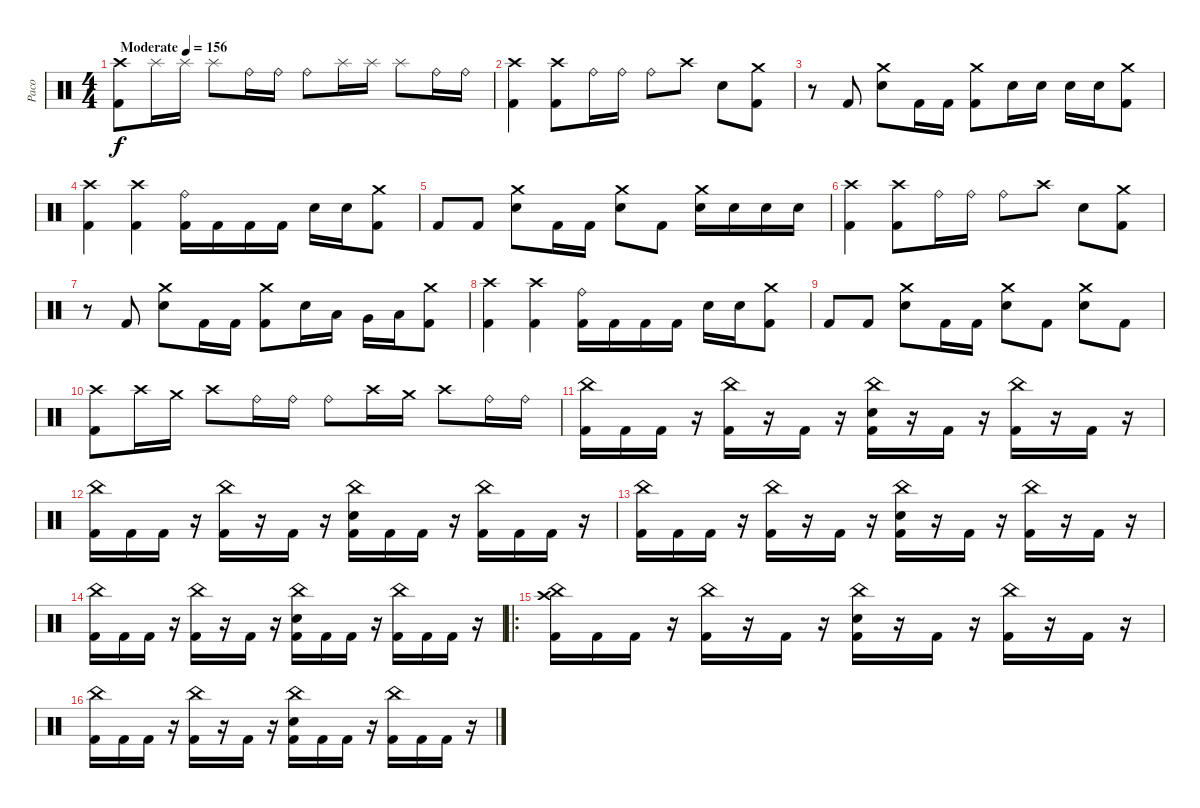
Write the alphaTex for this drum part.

\track ("Paco" "Paco") {instrument percussion}
\staff {score}
\articulation defaults
\ts (4 4)
\tempo (156 "Moderate")
\clef neutral
\ks c
("Crash high (hit)" "Kick (hit) 2").8{dy f} "Splash (hit)".16 "Splash (hit)".16 "Splash (hit)".8 "Ride (bell)".16 "Ride (bell)".16 "Ride (bell)".8 "Splash (hit)".16 "Splash (hit)".16 "Splash (hit)".8 "Ride (bell)".16 "Ride (bell)".16 |
("Crash high (hit)" "Kick (hit) 2").4 ("Crash high (hit)" "Kick (hit) 2").8 "Ride (bell)".16 "Ride (bell)".16 "Ride (bell)".8 "Crash high (hit)".8 "Electric Snare (hit)".8 ("Crash medium (hit)" "Kick (hit) 2").8 |
r.8 "Kick (hit) 2".8 ("Crash medium (hit)" "Electric Snare (hit)").8 "Kick (hit) 2".16 "Kick (hit) 2".16 ("Crash medium (hit)" "Kick (hit) 2").8 "Electric Snare (hit)".16 "Electric Snare (hit)".16 "Electric Snare (hit)".16 "Electric Snare (hit)".16 ("Crash medium (hit)" "Kick (hit) 2").8 |
("Crash high (hit)" "Kick (hit) 2").4 ("Crash high (hit)" "Kick (hit) 2").4 ("Ride (bell)" "Kick (hit) 2").16 "Kick (hit) 2".16 "Kick (hit) 2".16 "Kick (hit) 2".16 "Electric Snare (hit)".16 "Electric Snare (hit)".16 ("Crash medium (hit)" "Kick (hit) 2").8 |
"Kick (hit) 2".8 "Kick (hit) 2".8 ("Crash medium (hit)" "Electric Snare (hit)").8 "Kick (hit) 2".16 "Kick (hit) 2".16 ("Crash medium (hit)" "Electric Snare (hit)").8 "Kick (hit) 2".8 ("Crash medium (hit)" "Electric Snare (hit)").16 "Electric Snare (hit)".16 "Electric Snare (hit)".16 "Electric Snare (hit)".16 |
("Crash high (hit)" "Kick (hit) 2").4 ("Crash high (hit)" "Kick (hit) 2").8 "Ride (bell)".16 "Ride (bell)".16 "Ride (bell)".8 "Crash high (hit)".8 "Electric Snare (hit)".8 ("Crash medium (hit)" "Kick (hit) 2").8 |
r.8 "Kick (hit) 2".8 ("Crash medium (hit)" "Electric Snare (hit)").8 "Kick (hit) 2".16 "Kick (hit) 2".16 ("Crash medium (hit)" "Kick (hit) 2").8 "Electric Snare (hit)".16 "Low Tom (hit)".16 "Very Low Tom (hit)".16 "Low Floor Tom (hit)".16 ("Crash medium (hit)" "Kick (hit) 2").8 |
("Crash high (hit)" "Kick (hit) 2").4 ("Crash high (hit)" "Kick (hit) 2").4 ("Ride (bell)" "Kick (hit) 2").16 "Kick (hit) 2".16 "Kick (hit) 2".16 "Kick (hit) 2".16 "Electric Snare (hit)".16 "Electric Snare (hit)".16 ("Crash medium (hit)" "Kick (hit) 2").8 |
"Kick (hit) 2".8 "Kick (hit) 2".8 ("Crash medium (hit)" "Electric Snare (hit)").8 "Kick (hit) 2".16 "Kick (hit) 2".16 ("Crash medium (hit)" "Electric Snare (hit)").8 "Kick (hit) 2".8 ("Crash medium (hit)" "Electric Snare (hit)").8 "Kick (hit) 2".8 |
("Crash high (hit)" "Kick (hit) 2").8 "Crash high (hit)".16 "Crash medium (hit)".16 "Crash high (hit)".8 "Ride (bell)".16 "Ride (bell)".16 "Ride (bell)".8 "Crash high (hit)".16 "Crash medium (hit)".16 "Crash high (hit)".8 "Ride (bell)".16 "Ride (bell)".16 |
("China (hit)" "Kick (hit) 2").16 "Kick (hit) 2".16 "Kick (hit) 2".16 r.16 ("China (hit)" "Kick (hit) 2").16 r.16 "Kick (hit) 2".16 r.16 ("China (hit)" "Electric Snare (hit)" "Kick (hit) 2").16 r.16 "Kick (hit) 2".16 r.16 ("China (hit)" "Kick (hit) 2").16 r.16 "Kick (hit) 2".16 r.16 |
("China (hit)" "Kick (hit) 2").16 "Kick (hit) 2".16 "Kick (hit) 2".16 r.16 ("China (hit)" "Kick (hit) 2").16 r.16 "Kick (hit) 2".16 r.16 ("China (hit)" "Electric Snare (hit)" "Kick (hit) 2").16 "Kick (hit) 2".16 "Kick (hit) 2".16 r.16 ("China (hit)" "Kick (hit) 2").16 "Kick (hit) 2".16 "Kick (hit) 2".16 r.16 |
("China (hit)" "Kick (hit) 2").16 "Kick (hit) 2".16 "Kick (hit) 2".16 r.16 ("China (hit)" "Kick (hit) 2").16 r.16 "Kick (hit) 2".16 r.16 ("China (hit)" "Electric Snare (hit)" "Kick (hit) 2").16 r.16 "Kick (hit) 2".16 r.16 ("China (hit)" "Kick (hit) 2").16 r.16 "Kick (hit) 2".16 r.16 |
("China (hit)" "Kick (hit) 2").16 "Kick (hit) 2".16 "Kick (hit) 2".16 r.16 ("China (hit)" "Kick (hit) 2").16 r.16 "Kick (hit) 2".16 r.16 ("China (hit)" "Electric Snare (hit)" "Kick (hit) 2").16 "Kick (hit) 2".16 "Kick (hit) 2".16 r.16 ("China (hit)" "Kick (hit) 2").16 "Kick (hit) 2".16 "Kick (hit) 2".16 r.16 |
\ro
("China (hit)" "Crash high (hit)" "Kick (hit) 2").16 "Kick (hit) 2".16 "Kick (hit) 2".16 r.16 ("China (hit)" "Kick (hit) 2").16 r.16 "Kick (hit) 2".16 r.16 ("China (hit)" "Electric Snare (hit)" "Kick (hit) 2").16 r.16 "Kick (hit) 2".16 r.16 ("China (hit)" "Kick (hit) 2").16 r.16 "Kick (hit) 2".16 r.16 |
("China (hit)" "Kick (hit) 2").16 "Kick (hit) 2".16 "Kick (hit) 2".16 r.16 ("China (hit)" "Kick (hit) 2").16 r.16 "Kick (hit) 2".16 r.16 ("China (hit)" "Electric Snare (hit)" "Kick (hit) 2").16 "Kick (hit) 2".16 "Kick (hit) 2".16 r.16 ("China (hit)" "Kick (hit) 2").16 "Kick (hit) 2".16 "Kick (hit) 2".16 r.16
